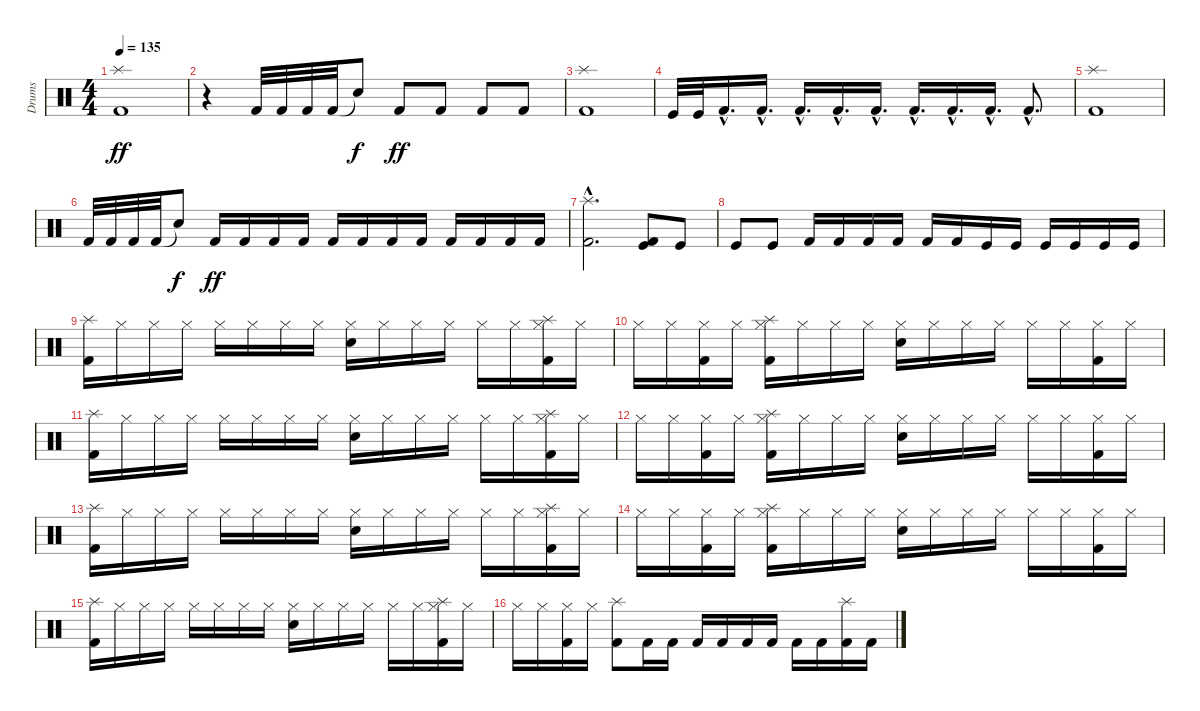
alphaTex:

\track ("Drums" "Drums") {instrument percussion}
\staff {score}
\articulation defaults
\ts (4 4)
\tempo 135
\clef neutral
\ks c
("Kick (hit) 2" "Splash (hit)").1{dy ff} |
r.4 "Kick (hit) 2".32 "Kick (hit) 2".32 "Kick (hit) 2".32 "Kick (hit) 2".32 "Snare (hit)"{t}.8{dy f} "Kick (hit) 2".8{dy ff} "Kick (hit) 2".8 "Kick (hit) 2".8 "Kick (hit) 2".8 |
("Kick (hit) 2" "Splash (hit)").1 |
"Kick (hit)".32 "Kick (hit)".32 "Kick (hit) 2"{hac}.16{d} "Kick (hit) 2"{hac}.16{d} "Kick (hit) 2"{hac}.16{d} "Kick (hit) 2"{hac}.16{d} "Kick (hit) 2"{hac}.16{d} "Kick (hit) 2"{hac}.16{d} "Kick (hit) 2"{hac}.16{d} "Kick (hit) 2"{hac}.16{d} "Kick (hit) 2"{hac}.8{d} |
("Kick (hit) 2" "Splash (hit)").1 |
"Kick (hit) 2".32 "Kick (hit) 2".32 "Kick (hit) 2".32 "Kick (hit) 2".32 "Snare (hit)"{t}.8{dy f} "Kick (hit) 2".16{dy ff} "Kick (hit) 2".16 "Kick (hit) 2".16 "Kick (hit) 2".16 "Kick (hit) 2".16 "Kick (hit) 2".16 "Kick (hit) 2".16 "Kick (hit) 2".16 "Kick (hit) 2".16 "Kick (hit) 2".16 "Kick (hit) 2".16 "Kick (hit) 2".16 |
("Kick (hit) 2"{hac} "Splash (hit)"{hac}).2{d} ("Kick (hit)" "Kick (hit) 2").8 "Kick (hit)".8 |
"Kick (hit)".8 "Kick (hit)".8 "Kick (hit) 2".16 "Kick (hit) 2".16 "Kick (hit) 2".16 "Kick (hit) 2".16 "Kick (hit) 2".16 "Kick (hit) 2".16 "Kick (hit)".16 "Kick (hit)".16 "Kick (hit)".16 "Kick (hit)".16 "Kick (hit)".16 "Kick (hit)".16 |
("Kick (hit) 2" "Splash (hit)").16 "Hi-Hat (closed)".16 "Hi-Hat (closed)".16 "Hi-Hat (closed)".16 "Hi-Hat (closed)".16 "Hi-Hat (closed)".16 "Hi-Hat (closed)".16 "Hi-Hat (closed)".16 ("Electric Snare (hit)" "Hi-Hat (closed)").16 "Hi-Hat (closed)".16 "Hi-Hat (closed)".16 "Hi-Hat (closed)".16 "Hi-Hat (closed)".16 "Hi-Hat (closed)".16 ("Kick (hit) 2" "Hi-Hat (closed)" "Splash (hit)").16 "Hi-Hat (closed)".16 |
"Hi-Hat (closed)".16 "Hi-Hat (closed)".16 ("Kick (hit) 2" "Hi-Hat (closed)").16 "Hi-Hat (closed)".16 ("Kick (hit) 2" "Hi-Hat (closed)" "Splash (hit)").16 "Hi-Hat (closed)".16 "Hi-Hat (closed)".16 "Hi-Hat (closed)".16 ("Electric Snare (hit)" "Hi-Hat (closed)").16 "Hi-Hat (closed)".16 "Hi-Hat (closed)".16 "Hi-Hat (closed)".16 "Hi-Hat (closed)".16 "Hi-Hat (closed)".16 ("Kick (hit) 2" "Hi-Hat (closed)").16 "Hi-Hat (closed)".16 |
("Kick (hit) 2" "Splash (hit)").16 "Hi-Hat (closed)".16 "Hi-Hat (closed)".16 "Hi-Hat (closed)".16 "Hi-Hat (closed)".16 "Hi-Hat (closed)".16 "Hi-Hat (closed)".16 "Hi-Hat (closed)".16 ("Electric Snare (hit)" "Hi-Hat (closed)").16 "Hi-Hat (closed)".16 "Hi-Hat (closed)".16 "Hi-Hat (closed)".16 "Hi-Hat (closed)".16 "Hi-Hat (closed)".16 ("Kick (hit) 2" "Hi-Hat (closed)" "Splash (hit)").16 "Hi-Hat (closed)".16 |
"Hi-Hat (closed)".16 "Hi-Hat (closed)".16 ("Kick (hit) 2" "Hi-Hat (closed)").16 "Hi-Hat (closed)".16 ("Kick (hit) 2" "Hi-Hat (closed)" "Splash (hit)").16 "Hi-Hat (closed)".16 "Hi-Hat (closed)".16 "Hi-Hat (closed)".16 ("Electric Snare (hit)" "Hi-Hat (closed)").16 "Hi-Hat (closed)".16 "Hi-Hat (closed)".16 "Hi-Hat (closed)".16 "Hi-Hat (closed)".16 "Hi-Hat (closed)".16 ("Kick (hit) 2" "Hi-Hat (closed)").16 "Hi-Hat (closed)".16 |
("Kick (hit) 2" "Splash (hit)").16 "Hi-Hat (closed)".16 "Hi-Hat (closed)".16 "Hi-Hat (closed)".16 "Hi-Hat (closed)".16 "Hi-Hat (closed)".16 "Hi-Hat (closed)".16 "Hi-Hat (closed)".16 ("Electric Snare (hit)" "Hi-Hat (closed)").16 "Hi-Hat (closed)".16 "Hi-Hat (closed)".16 "Hi-Hat (closed)".16 "Hi-Hat (closed)".16 "Hi-Hat (closed)".16 ("Kick (hit) 2" "Hi-Hat (closed)" "Splash (hit)").16 "Hi-Hat (closed)".16 |
"Hi-Hat (closed)".16 "Hi-Hat (closed)".16 ("Kick (hit) 2" "Hi-Hat (closed)").16 "Hi-Hat (closed)".16 ("Kick (hit) 2" "Hi-Hat (closed)" "Splash (hit)").16 "Hi-Hat (closed)".16 "Hi-Hat (closed)".16 "Hi-Hat (closed)".16 ("Electric Snare (hit)" "Hi-Hat (closed)").16 "Hi-Hat (closed)".16 "Hi-Hat (closed)".16 "Hi-Hat (closed)".16 "Hi-Hat (closed)".16 "Hi-Hat (closed)".16 ("Kick (hit) 2" "Hi-Hat (closed)").16 "Hi-Hat (closed)".16 |
("Kick (hit) 2" "Splash (hit)").16 "Hi-Hat (closed)".16 "Hi-Hat (closed)".16 "Hi-Hat (closed)".16 "Hi-Hat (closed)".16 "Hi-Hat (closed)".16 "Hi-Hat (closed)".16 "Hi-Hat (closed)".16 ("Electric Snare (hit)" "Hi-Hat (closed)").16 "Hi-Hat (closed)".16 "Hi-Hat (closed)".16 "Hi-Hat (closed)".16 "Hi-Hat (closed)".16 "Hi-Hat (closed)".16 ("Kick (hit) 2" "Hi-Hat (closed)" "Splash (hit)").16 "Hi-Hat (closed)".16 |
"Hi-Hat (closed)".16 "Hi-Hat (closed)".16 ("Kick (hit) 2" "Hi-Hat (closed)").16 "Hi-Hat (closed)".16 ("Kick (hit) 2" "Splash (hit)").8 "Kick (hit) 2".16 "Kick (hit) 2".16 "Kick (hit) 2".16 "Kick (hit) 2".16 "Kick (hit) 2".16 "Kick (hit) 2".16 "Kick (hit) 2".16 "Kick (hit) 2".16 ("Kick (hit) 2" "Splash (hit)").16 "Kick (hit) 2".16
